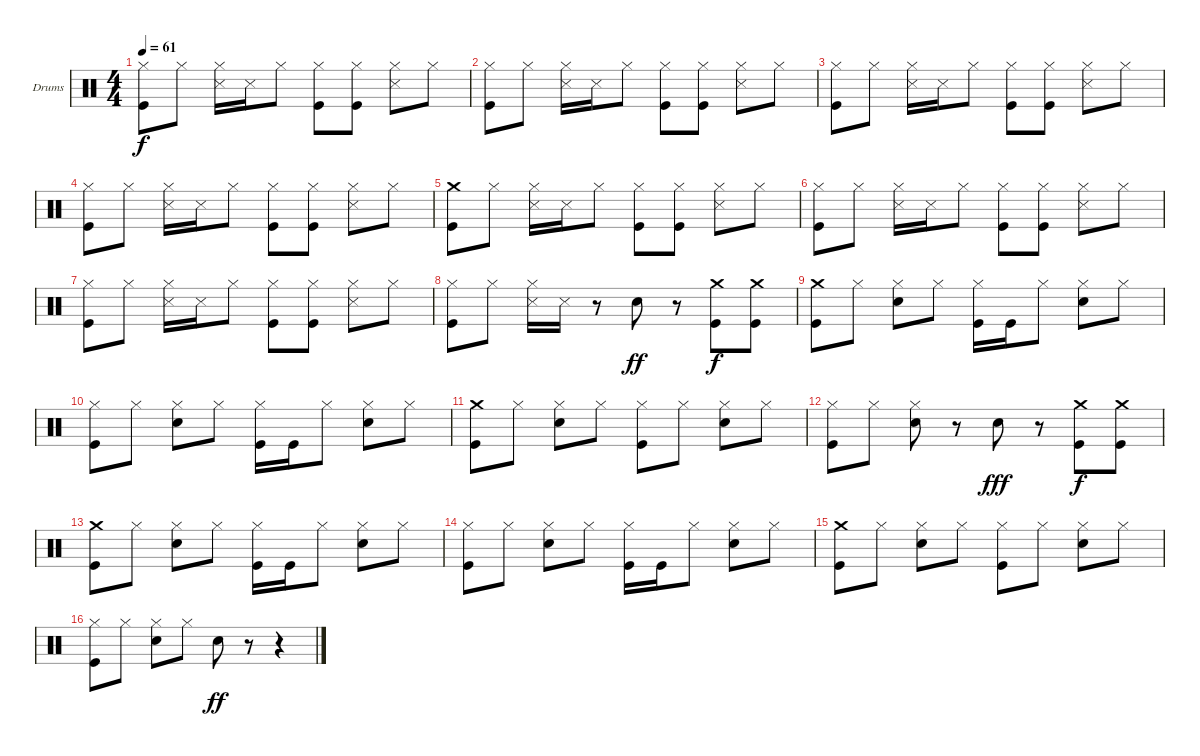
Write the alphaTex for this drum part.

\bracketExtendMode groupsimilarinstruments
\firstSystemTrackNameOrientation horizontal
\otherSystemsTrackNameOrientation horizontal
\track ("Drumkit" "Drums") {instrument percussion}
\staff {score}
\articulation defaults
\ts (4 4)
\tempo 61
\clef neutral
\ks c
("Hi-Hat (closed)" "Kick (hit)").8{dy f} "Hi-Hat (closed)".8 ("Hi-Hat (closed)" "Snare (side stick) 3").16 "Snare (side stick) 3".16 "Hi-Hat (closed)".8 ("Hi-Hat (closed)" "Kick (hit)").8 ("Hi-Hat (closed)" "Kick (hit)").8 ("Hi-Hat (closed)" "Snare (side stick) 3").8 "Hi-Hat (closed)".8 |
("Hi-Hat (closed)" "Kick (hit)").8 "Hi-Hat (closed)".8 ("Hi-Hat (closed)" "Snare (side stick) 3").16 "Snare (side stick) 3".16 "Hi-Hat (closed)".8 ("Hi-Hat (closed)" "Kick (hit)").8 ("Hi-Hat (closed)" "Kick (hit)").8 ("Hi-Hat (closed)" "Snare (side stick) 3").8 "Hi-Hat (closed)".8 |
("Hi-Hat (closed)" "Kick (hit)").8 "Hi-Hat (closed)".8 ("Hi-Hat (closed)" "Snare (side stick) 3").16 "Snare (side stick) 3".16 "Hi-Hat (closed)".8 ("Hi-Hat (closed)" "Kick (hit)").8 ("Hi-Hat (closed)" "Kick (hit)").8 ("Hi-Hat (closed)" "Snare (side stick) 3").8 "Hi-Hat (closed)".8 |
("Hi-Hat (closed)" "Kick (hit)").8 "Hi-Hat (closed)".8 ("Hi-Hat (closed)" "Snare (side stick) 3").16 "Snare (side stick) 3".16 "Hi-Hat (closed)".8 ("Hi-Hat (closed)" "Kick (hit)").8 ("Hi-Hat (closed)" "Kick (hit)").8 ("Hi-Hat (closed)" "Snare (side stick) 3").8 "Hi-Hat (closed)".8 |
("Crash medium (hit)" "Kick (hit)").8 "Hi-Hat (closed)".8 ("Hi-Hat (closed)" "Snare (side stick) 3").16 "Snare (side stick) 3".16 "Hi-Hat (closed)".8 ("Hi-Hat (closed)" "Kick (hit)").8 ("Hi-Hat (closed)" "Kick (hit)").8 ("Hi-Hat (closed)" "Snare (side stick) 3").8 "Hi-Hat (closed)".8 |
("Hi-Hat (closed)" "Kick (hit)").8 "Hi-Hat (closed)".8 ("Hi-Hat (closed)" "Snare (side stick) 3").16 "Snare (side stick) 3".16 "Hi-Hat (closed)".8 ("Hi-Hat (closed)" "Kick (hit)").8 ("Hi-Hat (closed)" "Kick (hit)").8 ("Hi-Hat (closed)" "Snare (side stick) 3").8 "Hi-Hat (closed)".8 |
("Hi-Hat (closed)" "Kick (hit)").8 "Hi-Hat (closed)".8 ("Hi-Hat (closed)" "Snare (side stick) 3").16 "Snare (side stick) 3".16 "Hi-Hat (closed)".8 ("Hi-Hat (closed)" "Kick (hit)").8 ("Hi-Hat (closed)" "Kick (hit)").8 ("Hi-Hat (closed)" "Snare (side stick) 3").8 "Hi-Hat (closed)".8 |
("Hi-Hat (closed)" "Kick (hit)").8 "Hi-Hat (closed)".8 ("Hi-Hat (closed)" "Snare (side stick) 3").16 "Snare (side stick) 3".16 r.8 "Snare (hit) 2".8{dy ff} r.8 ("Crash medium (hit)" "Kick (hit)").8{dy f} ("Crash medium (hit)" "Kick (hit)").8 |
("Crash medium (hit)" "Kick (hit)").8 "Hi-Hat (closed)".8 ("Hi-Hat (closed)" "Snare (hit) 2").8 "Hi-Hat (closed)".8 ("Hi-Hat (closed)" "Kick (hit)").16 "Kick (hit)".16 "Hi-Hat (closed)".8 ("Hi-Hat (closed)" "Snare (hit) 2").8 "Hi-Hat (closed)".8 |
("Hi-Hat (closed)" "Kick (hit)").8 "Hi-Hat (closed)".8 ("Hi-Hat (closed)" "Snare (hit) 2").8 "Hi-Hat (closed)".8 ("Hi-Hat (closed)" "Kick (hit)").16 "Kick (hit)".16 "Hi-Hat (closed)".8 ("Hi-Hat (closed)" "Snare (hit) 2").8 "Hi-Hat (closed)".8 |
("Crash medium (hit)" "Kick (hit)").8 "Hi-Hat (closed)".8 ("Hi-Hat (closed)" "Snare (hit) 2").8 "Hi-Hat (closed)".8 ("Hi-Hat (closed)" "Kick (hit)").8 "Hi-Hat (closed)".8 ("Hi-Hat (closed)" "Snare (hit) 2").8 "Hi-Hat (closed)".8 |
("Hi-Hat (closed)" "Kick (hit)").8 "Hi-Hat (closed)".8 ("Hi-Hat (closed)" "Snare (hit) 2").8 r.8 "Snare (hit) 2".8{dy fff} r.8 ("Crash medium (hit)" "Kick (hit)").8{dy f} ("Crash medium (hit)" "Kick (hit)").8 |
("Crash medium (hit)" "Kick (hit)").8 "Hi-Hat (closed)".8 ("Hi-Hat (closed)" "Snare (hit) 2").8 "Hi-Hat (closed)".8 ("Hi-Hat (closed)" "Kick (hit)").16 "Kick (hit)".16 "Hi-Hat (closed)".8 ("Hi-Hat (closed)" "Snare (hit) 2").8 "Hi-Hat (closed)".8 |
("Hi-Hat (closed)" "Kick (hit)").8 "Hi-Hat (closed)".8 ("Hi-Hat (closed)" "Snare (hit) 2").8 "Hi-Hat (closed)".8 ("Hi-Hat (closed)" "Kick (hit)").16 "Kick (hit)".16 "Hi-Hat (closed)".8 ("Hi-Hat (closed)" "Snare (hit) 2").8 "Hi-Hat (closed)".8 |
("Crash medium (hit)" "Kick (hit)").8 "Hi-Hat (closed)".8 ("Hi-Hat (closed)" "Snare (hit) 2").8 "Hi-Hat (closed)".8 ("Hi-Hat (closed)" "Kick (hit)").8 "Hi-Hat (closed)".8 ("Hi-Hat (closed)" "Snare (hit) 2").8 "Hi-Hat (closed)".8 |
("Hi-Hat (closed)" "Kick (hit)").8 "Hi-Hat (closed)".8 ("Hi-Hat (closed)" "Snare (hit) 2").8 "Hi-Hat (closed)".8 "Snare (hit) 2".8{dy ff} r.8 r.4
